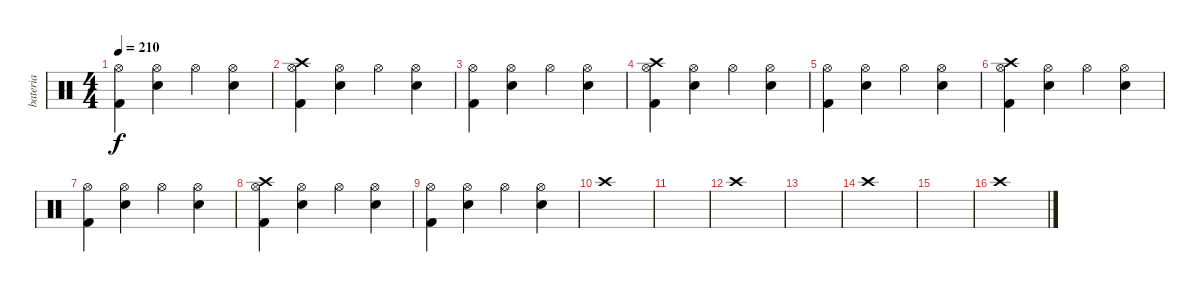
\track ("bateria" "bateria") {instrument percussion}
\staff {score}
\articulation defaults
\ts (4 4)
\tempo 210
\clef neutral
\ks c
("Hi-Hat (open)" "Kick (hit) 2").4{dy f} ("Hi-Hat (open)" "Electric Snare (hit)").4 "Hi-Hat (open)".4 ("Hi-Hat (open)" "Electric Snare (hit)").4 |
("Hi-Hat (open)" "Kick (hit) 2" "Crash high (hit)").4 ("Hi-Hat (open)" "Electric Snare (hit)").4 "Hi-Hat (open)".4 ("Hi-Hat (open)" "Electric Snare (hit)").4 |
("Hi-Hat (open)" "Kick (hit) 2").4 ("Hi-Hat (open)" "Electric Snare (hit)").4 "Hi-Hat (open)".4 ("Hi-Hat (open)" "Electric Snare (hit)").4 |
("Hi-Hat (open)" "Kick (hit) 2" "Crash high (hit)").4 ("Hi-Hat (open)" "Electric Snare (hit)").4 "Hi-Hat (open)".4 ("Hi-Hat (open)" "Electric Snare (hit)").4 |
("Hi-Hat (open)" "Kick (hit) 2").4 ("Hi-Hat (open)" "Electric Snare (hit)").4 "Hi-Hat (open)".4 ("Hi-Hat (open)" "Electric Snare (hit)").4 |
("Hi-Hat (open)" "Kick (hit) 2" "Crash high (hit)").4 ("Hi-Hat (open)" "Electric Snare (hit)").4 "Hi-Hat (open)".4 ("Hi-Hat (open)" "Electric Snare (hit)").4 |
("Hi-Hat (open)" "Kick (hit) 2").4 ("Hi-Hat (open)" "Electric Snare (hit)").4 "Hi-Hat (open)".4 ("Hi-Hat (open)" "Electric Snare (hit)").4 |
("Hi-Hat (open)" "Kick (hit) 2" "Crash high (hit)").4 ("Hi-Hat (open)" "Electric Snare (hit)").4 "Hi-Hat (open)".4 ("Hi-Hat (open)" "Electric Snare (hit)").4 |
("Hi-Hat (open)" "Kick (hit) 2").4 ("Hi-Hat (open)" "Electric Snare (hit)").4 "Hi-Hat (open)".4 ("Hi-Hat (open)" "Electric Snare (hit)").4 |
"Crash high (hit)".1 |
|
"Crash high (hit)".1 |
|
"Crash high (hit)".1 |
|
"Crash high (hit)".1
